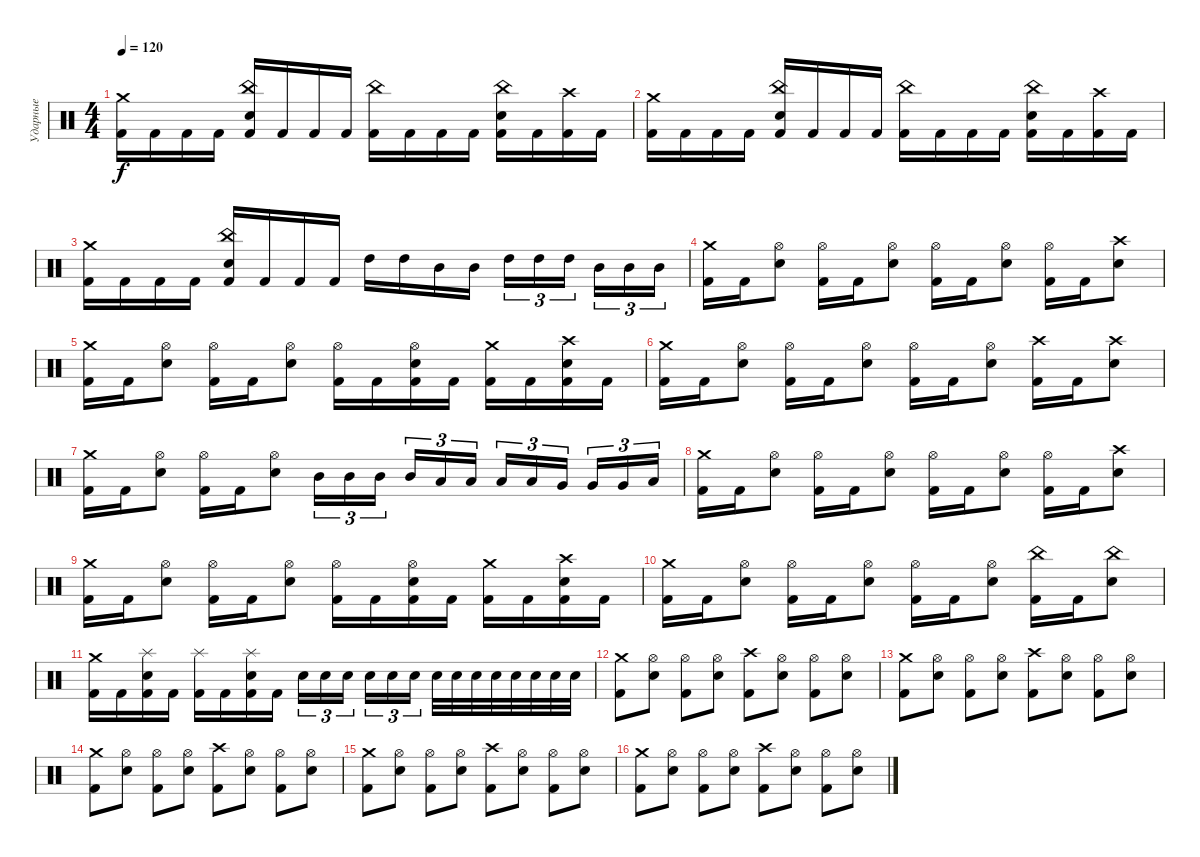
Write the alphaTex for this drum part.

\track ("Ударные" "Ударные") {instrument percussion}
\staff {score}
\articulation defaults
\ts (4 4)
\tempo 120
\clef neutral
\ks c
("Crash medium (hit)" "Kick (hit) 2").16{dy f} "Kick (hit) 2".16 "Kick (hit) 2".16 "Kick (hit) 2".16 ("China (hit)" "Electric Snare (hit)" "Kick (hit) 2").16 "Kick (hit) 2".16 "Kick (hit) 2".16 "Kick (hit) 2".16 ("China (hit)" "Kick (hit) 2").16 "Kick (hit) 2".16 "Kick (hit) 2".16 "Kick (hit) 2".16 ("China (hit)" "Electric Snare (hit)" "Kick (hit) 2").16 "Kick (hit) 2".16 ("Crash high (hit)" "Kick (hit) 2").16 "Kick (hit) 2".16 |
("Crash medium (hit)" "Kick (hit) 2").16 "Kick (hit) 2".16 "Kick (hit) 2".16 "Kick (hit) 2".16 ("China (hit)" "Electric Snare (hit)" "Kick (hit) 2").16 "Kick (hit) 2".16 "Kick (hit) 2".16 "Kick (hit) 2".16 ("China (hit)" "Kick (hit) 2").16 "Kick (hit) 2".16 "Kick (hit) 2".16 "Kick (hit) 2".16 ("China (hit)" "Electric Snare (hit)" "Kick (hit) 2").16 "Kick (hit) 2".16 ("Crash high (hit)" "Kick (hit) 2").16 "Kick (hit) 2".16 |
("Crash medium (hit)" "Kick (hit) 2").16 "Kick (hit) 2".16 "Kick (hit) 2".16 "Kick (hit) 2".16 ("China (hit)" "Electric Snare (hit)" "Kick (hit) 2").16 "Kick (hit) 2".16 "Kick (hit) 2".16 "Kick (hit) 2".16 "High Tom (hit)".16 "High Tom (hit)".16 "Mid Tom (hit)".16 "Mid Tom (hit)".16 "High Tom (hit)".16{tu (3 2)} "High Tom (hit)".16{tu (3 2)} "High Tom (hit)".16{tu (3 2) beam splitsecondary} "Mid Tom (hit)".16{tu (3 2)} "Mid Tom (hit)".16{tu (3 2)} "Mid Tom (hit)".16{tu (3 2)} |
("Crash medium (hit)" "Kick (hit) 2").16 "Kick (hit) 2".16 ("Hi-Hat (open)" "Electric Snare (hit)").8 ("Hi-Hat (open)" "Kick (hit) 2").16 "Kick (hit) 2".16 ("Hi-Hat (open)" "Electric Snare (hit)").8 ("Hi-Hat (open)" "Kick (hit) 2").16 "Kick (hit) 2".16 ("Hi-Hat (open)" "Electric Snare (hit)").8 ("Hi-Hat (open)" "Kick (hit) 2").16 "Kick (hit) 2".16 ("Crash high (hit)" "Electric Snare (hit)").8 |
("Crash medium (hit)" "Kick (hit) 2").16 "Kick (hit) 2".16 ("Hi-Hat (open)" "Electric Snare (hit)").8 ("Hi-Hat (open)" "Kick (hit) 2").16 "Kick (hit) 2".16 ("Hi-Hat (open)" "Electric Snare (hit)").8 ("Hi-Hat (open)" "Kick (hit) 2").16 "Kick (hit) 2".16 ("Hi-Hat (open)" "Electric Snare (hit)" "Kick (hit) 2").16 "Kick (hit) 2".16 ("Crash medium (hit)" "Kick (hit) 2").16 "Kick (hit) 2".16 ("Crash high (hit)" "Electric Snare (hit)" "Kick (hit) 2").16 "Kick (hit) 2".16 |
("Crash medium (hit)" "Kick (hit) 2").16 "Kick (hit) 2".16 ("Hi-Hat (open)" "Electric Snare (hit)").8 ("Hi-Hat (open)" "Kick (hit) 2").16 "Kick (hit) 2".16 ("Hi-Hat (open)" "Electric Snare (hit)").8 ("Hi-Hat (open)" "Kick (hit) 2").16 "Kick (hit) 2".16 ("Hi-Hat (open)" "Electric Snare (hit)").8 ("Crash high (hit)" "Kick (hit) 2").16 "Kick (hit) 2".16 ("Crash high (hit)" "Electric Snare (hit)").8 |
("Crash medium (hit)" "Kick (hit) 2").16 "Kick (hit) 2".16 ("Hi-Hat (open)" "Electric Snare (hit)").8 ("Hi-Hat (open)" "Kick (hit) 2").16 "Kick (hit) 2".16 ("Hi-Hat (open)" "Electric Snare (hit)").8 "Mid Tom (hit)".16{tu (3 2)} "Mid Tom (hit)".16{tu (3 2)} "Mid Tom (hit)".16{tu (3 2) beam splitsecondary} "Mid Tom (hit)".16{tu (3 2)} "Low Tom (hit)".16{tu (3 2)} "Low Tom (hit)".16{tu (3 2)} "Low Tom (hit)".16{tu (3 2)} "Low Tom (hit)".16{tu (3 2)} "Very Low Tom (hit)".16{tu (3 2) beam splitsecondary} "Very Low Tom (hit)".16{tu (3 2)} "Very Low Tom (hit)".16{tu (3 2)} "Low Floor Tom (hit)".16{tu (3 2)} |
("Crash medium (hit)" "Kick (hit) 2").16 "Kick (hit) 2".16 ("Hi-Hat (open)" "Electric Snare (hit)").8 ("Hi-Hat (open)" "Kick (hit) 2").16 "Kick (hit) 2".16 ("Hi-Hat (open)" "Electric Snare (hit)").8 ("Hi-Hat (open)" "Kick (hit) 2").16 "Kick (hit) 2".16 ("Hi-Hat (open)" "Electric Snare (hit)").8 ("Hi-Hat (open)" "Kick (hit) 2").16 "Kick (hit) 2".16 ("Crash high (hit)" "Electric Snare (hit)").8 |
("Crash medium (hit)" "Kick (hit) 2").16 "Kick (hit) 2".16 ("Hi-Hat (open)" "Electric Snare (hit)").8 ("Hi-Hat (open)" "Kick (hit) 2").16 "Kick (hit) 2".16 ("Hi-Hat (open)" "Electric Snare (hit)").8 ("Hi-Hat (open)" "Kick (hit) 2").16 "Kick (hit) 2".16 ("Hi-Hat (open)" "Electric Snare (hit)" "Kick (hit) 2").16 "Kick (hit) 2".16 ("Crash medium (hit)" "Kick (hit) 2").16 "Kick (hit) 2".16 ("Crash high (hit)" "Electric Snare (hit)" "Kick (hit) 2").16 "Kick (hit) 2".16 |
("Crash medium (hit)" "Kick (hit) 2").16 "Kick (hit) 2".16 ("Hi-Hat (open)" "Electric Snare (hit)").8 ("Hi-Hat (open)" "Kick (hit) 2").16 "Kick (hit) 2".16 ("Hi-Hat (open)" "Electric Snare (hit)").8 ("Hi-Hat (open)" "Kick (hit) 2").16 "Kick (hit) 2".16 ("Hi-Hat (open)" "Electric Snare (hit)").8 ("China (hit)" "Kick (hit) 2").16 "Kick (hit) 2".16 ("China (hit)" "Electric Snare (hit)").8 |
("Crash medium (hit)" "Kick (hit) 2").16 "Kick (hit) 2".16 ("Splash (hit)" "Electric Snare (hit)" "Kick (hit) 2").16 "Kick (hit) 2".16 ("Splash (hit)" "Kick (hit) 2").16 "Kick (hit) 2".16 ("Splash (hit)" "Electric Snare (hit)" "Kick (hit) 2").16 "Kick (hit) 2".16 "Electric Snare (hit)".16{tu (3 2)} "Electric Snare (hit)".16{tu (3 2)} "Electric Snare (hit)".16{tu (3 2) beam splitsecondary} "Electric Snare (hit)".16{tu (3 2)} "Electric Snare (hit)".16{tu (3 2)} "Electric Snare (hit)".16{tu (3 2)} "Electric Snare (hit)".32 "Electric Snare (hit)".32 "Electric Snare (hit)".32 "Electric Snare (hit)".32 "Electric Snare (hit)".32 "Electric Snare (hit)".32 "Electric Snare (hit)".32 "Electric Snare (hit)".32 |
("Crash medium (hit)" "Kick (hit) 2").8 ("Hi-Hat (open)" "Electric Snare (hit)").8 ("Hi-Hat (open)" "Kick (hit) 2").8 ("Hi-Hat (open)" "Electric Snare (hit)").8 ("Crash high (hit)" "Kick (hit) 2").8 ("Hi-Hat (open)" "Electric Snare (hit)").8 ("Hi-Hat (open)" "Kick (hit) 2").8 ("Hi-Hat (open)" "Electric Snare (hit)").8 |
("Crash medium (hit)" "Kick (hit) 2").8 ("Hi-Hat (open)" "Electric Snare (hit)").8 ("Hi-Hat (open)" "Kick (hit) 2").8 ("Hi-Hat (open)" "Electric Snare (hit)").8 ("Crash high (hit)" "Kick (hit) 2").8 ("Hi-Hat (open)" "Electric Snare (hit)").8 ("Hi-Hat (open)" "Kick (hit) 2").8 ("Hi-Hat (open)" "Electric Snare (hit)").8 |
("Crash medium (hit)" "Kick (hit) 2").8 ("Hi-Hat (open)" "Electric Snare (hit)").8 ("Hi-Hat (open)" "Kick (hit) 2").8 ("Hi-Hat (open)" "Electric Snare (hit)").8 ("Crash high (hit)" "Kick (hit) 2").8 ("Hi-Hat (open)" "Electric Snare (hit)").8 ("Hi-Hat (open)" "Kick (hit) 2").8 ("Hi-Hat (open)" "Electric Snare (hit)").8 |
("Crash medium (hit)" "Kick (hit) 2").8 ("Hi-Hat (open)" "Electric Snare (hit)").8 ("Hi-Hat (open)" "Kick (hit) 2").8 ("Hi-Hat (open)" "Electric Snare (hit)").8 ("Crash high (hit)" "Kick (hit) 2").8 ("Hi-Hat (open)" "Electric Snare (hit)").8 ("Hi-Hat (open)" "Kick (hit) 2").8 ("Hi-Hat (open)" "Electric Snare (hit)").8 |
("Crash medium (hit)" "Kick (hit) 2").8 ("Hi-Hat (open)" "Electric Snare (hit)").8 ("Hi-Hat (open)" "Kick (hit) 2").8 ("Hi-Hat (open)" "Electric Snare (hit)").8 ("Crash high (hit)" "Kick (hit) 2").8 ("Hi-Hat (open)" "Electric Snare (hit)").8 ("Hi-Hat (open)" "Kick (hit) 2").8 ("Hi-Hat (open)" "Electric Snare (hit)").8
